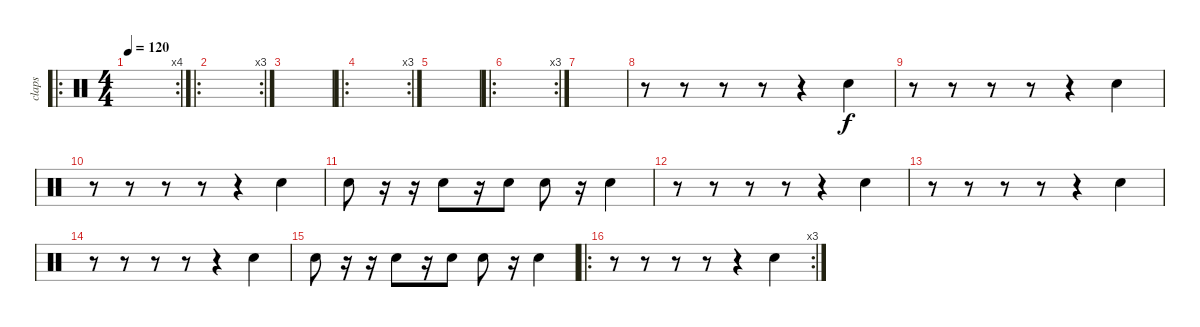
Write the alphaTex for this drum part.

\track ("claps" "claps") {instrument percussion}
\staff {score}
\articulation defaults
\ro
\rc 4
\ts (4 4)
\tempo 120
\clef neutral
\ks c
|
\ro
\rc 3
|
|
\ro
\rc 3
|
|
\ro
\rc 3
|
|
r.8 r.8 r.8 r.8 r.4 "Hand Clap (hit)".4 |
r.8 r.8 r.8 r.8 r.4 "Hand Clap (hit)".4 |
r.8 r.8 r.8 r.8 r.4 "Hand Clap (hit)".4 |
"Hand Clap (hit)".8 r.16 r.16 "Hand Clap (hit)".8 r.16 "Hand Clap (hit)".8 "Hand Clap (hit)".8 r.16 "Hand Clap (hit)".4 |
r.8 r.8 r.8 r.8 r.4 "Hand Clap (hit)".4 |
r.8 r.8 r.8 r.8 r.4 "Hand Clap (hit)".4 |
r.8 r.8 r.8 r.8 r.4 "Hand Clap (hit)".4 |
"Hand Clap (hit)".8 r.16 r.16 "Hand Clap (hit)".8 r.16 "Hand Clap (hit)".8 "Hand Clap (hit)".8 r.16 "Hand Clap (hit)".4 |
\ro
\rc 3
r.8 r.8 r.8 r.8 r.4 "Hand Clap (hit)".4
